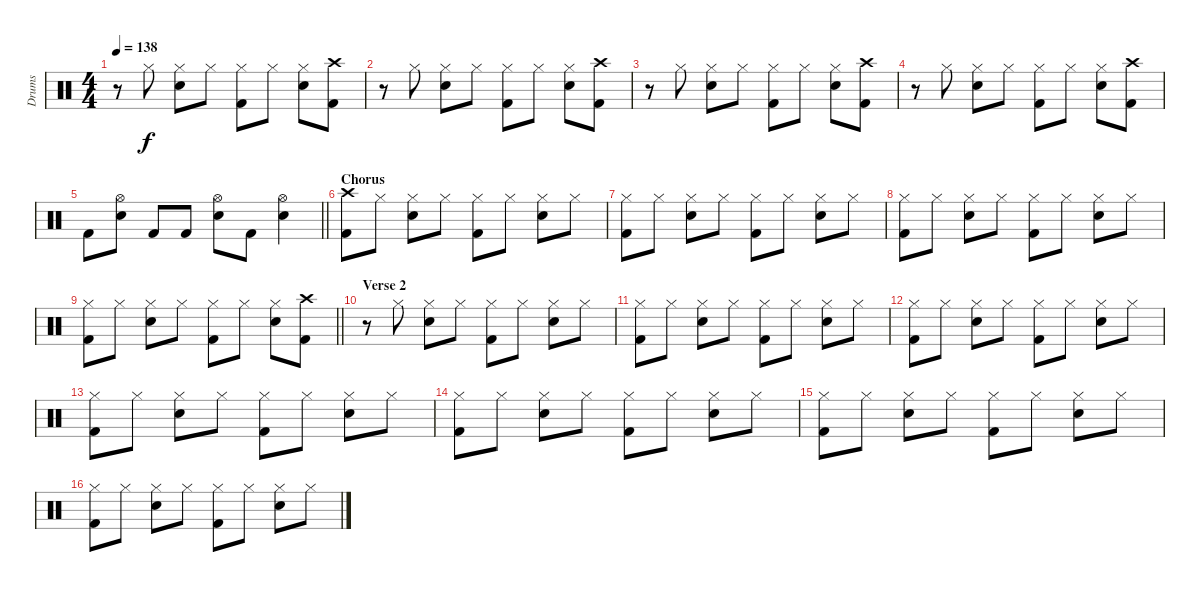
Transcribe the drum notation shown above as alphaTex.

\track ("Drums" "Drums") {instrument percussion}
\staff {score}
\articulation defaults
\ts (4 4)
\tempo 138
\clef neutral
\ks c
r.8{dy f} "Hi-Hat (closed)".8 ("Hi-Hat (closed)" "Snare (hit) 2").8 "Hi-Hat (closed)".8 ("Hi-Hat (closed)" "Kick (hit) 2").8 "Hi-Hat (closed)".8 ("Hi-Hat (closed)" "Snare (hit) 2").8 ("Crash high (hit)" "Kick (hit) 2").8 |
r.8 "Hi-Hat (closed)".8 ("Hi-Hat (closed)" "Snare (hit) 2").8 "Hi-Hat (closed)".8 ("Hi-Hat (closed)" "Kick (hit) 2").8 "Hi-Hat (closed)".8 ("Hi-Hat (closed)" "Snare (hit) 2").8 ("Crash high (hit)" "Kick (hit) 2").8 |
r.8 "Hi-Hat (closed)".8 ("Hi-Hat (closed)" "Snare (hit) 2").8 "Hi-Hat (closed)".8 ("Hi-Hat (closed)" "Kick (hit) 2").8 "Hi-Hat (closed)".8 ("Hi-Hat (closed)" "Snare (hit) 2").8 ("Crash high (hit)" "Kick (hit) 2").8 |
r.8 "Hi-Hat (closed)".8 ("Hi-Hat (closed)" "Snare (hit) 2").8 "Hi-Hat (closed)".8 ("Hi-Hat (closed)" "Kick (hit) 2").8 "Hi-Hat (closed)".8 ("Hi-Hat (closed)" "Snare (hit) 2").8 ("Crash high (hit)" "Kick (hit) 2").8 |
\barLineRight lightlight "Kick (hit) 2".8
("Hi-Hat (open)" "Snare (hit) 2").8 "Kick (hit) 2".8 "Kick (hit) 2".8 ("Hi-Hat (open)" "Snare (hit) 2").8 "Kick (hit) 2".8 ("Hi-Hat (open)" "Snare (hit) 2").4 |
\section ("" "Chorus")
("Crash high (hit)" "Kick (hit) 2").8 "Hi-Hat (closed)".8 ("Hi-Hat (closed)" "Snare (hit) 2").8 "Hi-Hat (closed)".8 ("Hi-Hat (closed)" "Kick (hit) 2").8 "Hi-Hat (closed)".8 ("Hi-Hat (closed)" "Snare (hit) 2").8 "Hi-Hat (closed)".8 |
("Hi-Hat (closed)" "Kick (hit) 2").8 "Hi-Hat (closed)".8 ("Hi-Hat (closed)" "Snare (hit) 2").8 "Hi-Hat (closed)".8 ("Hi-Hat (closed)" "Kick (hit) 2").8 "Hi-Hat (closed)".8 ("Hi-Hat (closed)" "Snare (hit) 2").8 "Hi-Hat (closed)".8 |
("Hi-Hat (closed)" "Kick (hit) 2").8 "Hi-Hat (closed)".8 ("Hi-Hat (closed)" "Snare (hit) 2").8 "Hi-Hat (closed)".8 ("Hi-Hat (closed)" "Kick (hit) 2").8 "Hi-Hat (closed)".8 ("Hi-Hat (closed)" "Snare (hit) 2").8 "Hi-Hat (closed)".8 |
\barLineRight lightlight
("Hi-Hat (closed)" "Kick (hit) 2").8 "Hi-Hat (closed)".8 ("Hi-Hat (closed)" "Snare (hit) 2").8 "Hi-Hat (closed)".8 ("Hi-Hat (closed)" "Kick (hit) 2").8 "Hi-Hat (closed)".8 ("Hi-Hat (closed)" "Snare (hit) 2").8 ("Crash high (hit)" "Kick (hit) 2").8 |
\section ("" "Verse 2")
r.8 "Hi-Hat (closed)".8 ("Hi-Hat (closed)" "Snare (hit) 2").8 "Hi-Hat (closed)".8 ("Hi-Hat (closed)" "Kick (hit) 2").8 "Hi-Hat (closed)".8 ("Hi-Hat (closed)" "Snare (hit) 2").8 "Hi-Hat (closed)".8 |
("Hi-Hat (closed)" "Kick (hit) 2").8 "Hi-Hat (closed)".8 ("Hi-Hat (closed)" "Snare (hit) 2").8 "Hi-Hat (closed)".8 ("Hi-Hat (closed)" "Kick (hit) 2").8 "Hi-Hat (closed)".8 ("Hi-Hat (closed)" "Snare (hit) 2").8 "Hi-Hat (closed)".8 |
("Hi-Hat (closed)" "Kick (hit) 2").8 "Hi-Hat (closed)".8 ("Hi-Hat (closed)" "Snare (hit) 2").8 "Hi-Hat (closed)".8 ("Hi-Hat (closed)" "Kick (hit) 2").8 "Hi-Hat (closed)".8 ("Hi-Hat (closed)" "Snare (hit) 2").8 "Hi-Hat (closed)".8 |
("Hi-Hat (closed)" "Kick (hit) 2").8 "Hi-Hat (closed)".8 ("Hi-Hat (closed)" "Snare (hit) 2").8 "Hi-Hat (closed)".8 ("Hi-Hat (closed)" "Kick (hit) 2").8 "Hi-Hat (closed)".8 ("Hi-Hat (closed)" "Snare (hit) 2").8 "Hi-Hat (closed)".8 |
("Hi-Hat (closed)" "Kick (hit) 2").8 "Hi-Hat (closed)".8 ("Hi-Hat (closed)" "Snare (hit) 2").8 "Hi-Hat (closed)".8 ("Hi-Hat (closed)" "Kick (hit) 2").8 "Hi-Hat (closed)".8 ("Hi-Hat (closed)" "Snare (hit) 2").8 "Hi-Hat (closed)".8 |
("Hi-Hat (closed)" "Kick (hit) 2").8 "Hi-Hat (closed)".8 ("Hi-Hat (closed)" "Snare (hit) 2").8 "Hi-Hat (closed)".8 ("Hi-Hat (closed)" "Kick (hit) 2").8 "Hi-Hat (closed)".8 ("Hi-Hat (closed)" "Snare (hit) 2").8 "Hi-Hat (closed)".8 |
("Hi-Hat (closed)" "Kick (hit) 2").8 "Hi-Hat (closed)".8 ("Hi-Hat (closed)" "Snare (hit) 2").8 "Hi-Hat (closed)".8 ("Hi-Hat (closed)" "Kick (hit) 2").8 "Hi-Hat (closed)".8 ("Hi-Hat (closed)" "Snare (hit) 2").8 "Hi-Hat (closed)".8
